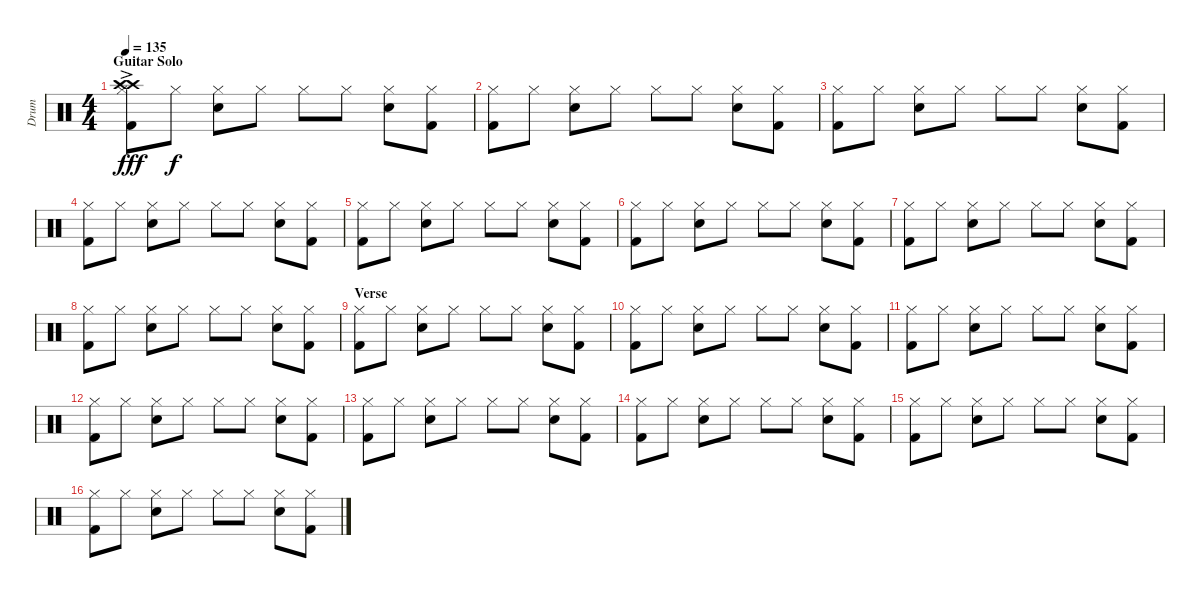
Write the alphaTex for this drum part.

\track ("Drum" "Drum") {instrument percussion}
\staff {score}
\articulation defaults
\ts (4 4)
\section ("" "Guitar Solo")
\tempo 135
\clef neutral
\ks c
("Crash high (hit)"{ac} "Crash high (hit)"{ac} "Hi-Hat (closed)" "Kick (hit) 2").8{dy fff} "Hi-Hat (closed)".8{dy f} ("Snare (hit) 2" "Hi-Hat (closed)").8 "Hi-Hat (closed)".8 "Hi-Hat (closed)".8 "Hi-Hat (closed)".8 ("Snare (hit) 2" "Hi-Hat (closed)").8 ("Hi-Hat (closed)" "Kick (hit) 2").8 |
("Hi-Hat (closed)" "Kick (hit) 2").8 "Hi-Hat (closed)".8 ("Snare (hit) 2" "Hi-Hat (closed)").8 "Hi-Hat (closed)".8 "Hi-Hat (closed)".8 "Hi-Hat (closed)".8 ("Snare (hit) 2" "Hi-Hat (closed)").8 ("Hi-Hat (closed)" "Kick (hit) 2").8 |
("Hi-Hat (closed)" "Kick (hit) 2").8 "Hi-Hat (closed)".8 ("Snare (hit) 2" "Hi-Hat (closed)").8 "Hi-Hat (closed)".8 "Hi-Hat (closed)".8 "Hi-Hat (closed)".8 ("Snare (hit) 2" "Hi-Hat (closed)").8 ("Hi-Hat (closed)" "Kick (hit) 2").8 |
("Hi-Hat (closed)" "Kick (hit) 2").8 "Hi-Hat (closed)".8 ("Snare (hit) 2" "Hi-Hat (closed)").8 "Hi-Hat (closed)".8 "Hi-Hat (closed)".8 "Hi-Hat (closed)".8 ("Snare (hit) 2" "Hi-Hat (closed)").8 ("Hi-Hat (closed)" "Kick (hit) 2").8 |
("Hi-Hat (closed)" "Kick (hit) 2").8 "Hi-Hat (closed)".8 ("Snare (hit) 2" "Hi-Hat (closed)").8 "Hi-Hat (closed)".8 "Hi-Hat (closed)".8 "Hi-Hat (closed)".8 ("Snare (hit) 2" "Hi-Hat (closed)").8 ("Hi-Hat (closed)" "Kick (hit) 2").8 |
("Hi-Hat (closed)" "Kick (hit) 2").8 "Hi-Hat (closed)".8 ("Snare (hit) 2" "Hi-Hat (closed)").8 "Hi-Hat (closed)".8 "Hi-Hat (closed)".8 "Hi-Hat (closed)".8 ("Snare (hit) 2" "Hi-Hat (closed)").8 ("Hi-Hat (closed)" "Kick (hit) 2").8 |
("Hi-Hat (closed)" "Kick (hit) 2").8 "Hi-Hat (closed)".8 ("Snare (hit) 2" "Hi-Hat (closed)").8 "Hi-Hat (closed)".8 "Hi-Hat (closed)".8 "Hi-Hat (closed)".8 ("Snare (hit) 2" "Hi-Hat (closed)").8 ("Hi-Hat (closed)" "Kick (hit) 2").8 |
("Hi-Hat (closed)" "Kick (hit) 2").8 "Hi-Hat (closed)".8 ("Snare (hit) 2" "Hi-Hat (closed)").8 "Hi-Hat (closed)".8 "Hi-Hat (closed)".8 "Hi-Hat (closed)".8 ("Snare (hit) 2" "Hi-Hat (closed)").8 ("Hi-Hat (closed)" "Kick (hit) 2").8 |
\section ("" "Verse")
("Hi-Hat (closed)" "Kick (hit) 2").8 "Hi-Hat (closed)".8 ("Snare (hit) 2" "Hi-Hat (closed)").8 "Hi-Hat (closed)".8 "Hi-Hat (closed)".8 "Hi-Hat (closed)".8 ("Snare (hit) 2" "Hi-Hat (closed)").8 ("Hi-Hat (closed)" "Kick (hit) 2").8 |
("Hi-Hat (closed)" "Kick (hit) 2").8 "Hi-Hat (closed)".8 ("Snare (hit) 2" "Hi-Hat (closed)").8 "Hi-Hat (closed)".8 "Hi-Hat (closed)".8 "Hi-Hat (closed)".8 ("Snare (hit) 2" "Hi-Hat (closed)").8 ("Hi-Hat (closed)" "Kick (hit) 2").8 |
("Hi-Hat (closed)" "Kick (hit) 2").8 "Hi-Hat (closed)".8 ("Snare (hit) 2" "Hi-Hat (closed)").8 "Hi-Hat (closed)".8 "Hi-Hat (closed)".8 "Hi-Hat (closed)".8 ("Snare (hit) 2" "Hi-Hat (closed)").8 ("Hi-Hat (closed)" "Kick (hit) 2").8 |
("Hi-Hat (closed)" "Kick (hit) 2").8 "Hi-Hat (closed)".8 ("Snare (hit) 2" "Hi-Hat (closed)").8 "Hi-Hat (closed)".8 "Hi-Hat (closed)".8 "Hi-Hat (closed)".8 ("Snare (hit) 2" "Hi-Hat (closed)").8 ("Hi-Hat (closed)" "Kick (hit) 2").8 |
("Hi-Hat (closed)" "Kick (hit) 2").8 "Hi-Hat (closed)".8 ("Snare (hit) 2" "Hi-Hat (closed)").8 "Hi-Hat (closed)".8 "Hi-Hat (closed)".8 "Hi-Hat (closed)".8 ("Snare (hit) 2" "Hi-Hat (closed)").8 ("Hi-Hat (closed)" "Kick (hit) 2").8 |
("Hi-Hat (closed)" "Kick (hit) 2").8 "Hi-Hat (closed)".8 ("Snare (hit) 2" "Hi-Hat (closed)").8 "Hi-Hat (closed)".8 "Hi-Hat (closed)".8 "Hi-Hat (closed)".8 ("Snare (hit) 2" "Hi-Hat (closed)").8 ("Hi-Hat (closed)" "Kick (hit) 2").8 |
("Hi-Hat (closed)" "Kick (hit) 2").8 "Hi-Hat (closed)".8 ("Snare (hit) 2" "Hi-Hat (closed)").8 "Hi-Hat (closed)".8 "Hi-Hat (closed)".8 "Hi-Hat (closed)".8 ("Snare (hit) 2" "Hi-Hat (closed)").8 ("Hi-Hat (closed)" "Kick (hit) 2").8 |
("Hi-Hat (closed)" "Kick (hit) 2").8 "Hi-Hat (closed)".8 ("Snare (hit) 2" "Hi-Hat (closed)").8 "Hi-Hat (closed)".8 "Hi-Hat (closed)".8 "Hi-Hat (closed)".8 ("Snare (hit) 2" "Hi-Hat (closed)").8 ("Hi-Hat (closed)" "Kick (hit) 2").8
